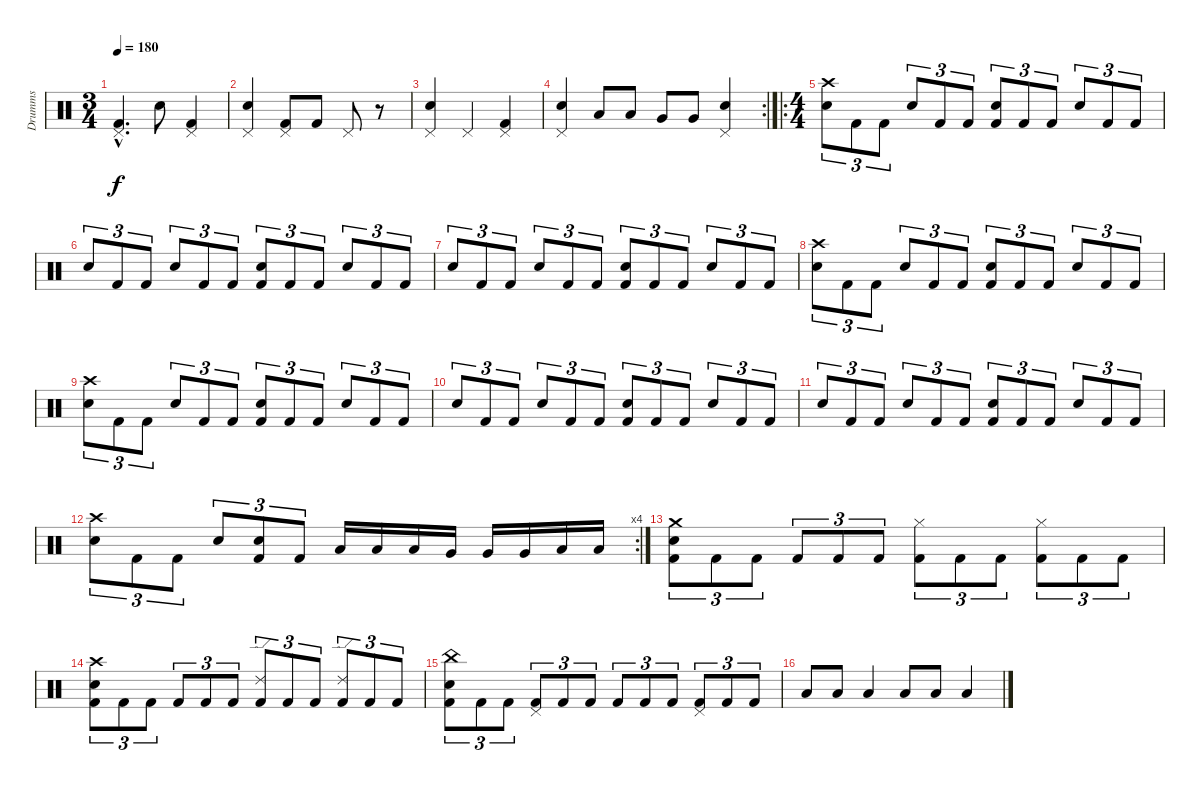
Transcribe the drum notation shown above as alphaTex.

\track ("Drumms" "Drumms") {instrument percussion}
\staff {score}
\articulation defaults
\ts (3 4)
\tempo 180
\clef neutral
\ks c
("Kick (hit) 2"{hac} "Pedal Hi-Hat (hit)"{hac}).4{d dy f} "Snare (hit) 2".8 ("Kick (hit) 2" "Pedal Hi-Hat (hit)").4 |
("Snare (hit) 2" "Pedal Hi-Hat (hit)").4 ("Kick (hit) 2" "Pedal Hi-Hat (hit)").8 "Kick (hit) 2".8 "Pedal Hi-Hat (hit)".8 r.8 |
("Snare (hit) 2" "Pedal Hi-Hat (hit)").4 "Pedal Hi-Hat (hit)".4 ("Kick (hit) 2" "Pedal Hi-Hat (hit)").4 |
\rc 2
("Snare (hit) 2" "Pedal Hi-Hat (hit)").4 "Low Tom (hit)".8 "Low Tom (hit)".8 "Very Low Tom (hit)".8 "Very Low Tom (hit)".8 ("Snare (hit) 2" "Pedal Hi-Hat (hit)").4 |
\ro
\ts (4 4)
("Snare (hit) 2" "Crash high (hit)").8{tu (3 2)} "Kick (hit) 2".8{tu (3 2)} "Kick (hit) 2".8{tu (3 2)} "Snare (hit) 2".8{tu (3 2)} "Kick (hit) 2".8{tu (3 2)} "Kick (hit) 2".8{tu (3 2)} ("Kick (hit) 2" "Snare (hit) 2").8{tu (3 2)} "Kick (hit) 2".8{tu (3 2)} "Kick (hit) 2".8{tu (3 2)} "Snare (hit) 2".8{tu (3 2)} "Kick (hit) 2".8{tu (3 2)} "Kick (hit) 2".8{tu (3 2)} |
"Snare (hit) 2".8{tu (3 2)} "Kick (hit) 2".8{tu (3 2)} "Kick (hit) 2".8{tu (3 2)} "Snare (hit) 2".8{tu (3 2)} "Kick (hit) 2".8{tu (3 2)} "Kick (hit) 2".8{tu (3 2)} ("Kick (hit) 2" "Snare (hit) 2").8{tu (3 2)} "Kick (hit) 2".8{tu (3 2)} "Kick (hit) 2".8{tu (3 2)} "Snare (hit) 2".8{tu (3 2)} "Kick (hit) 2".8{tu (3 2)} "Kick (hit) 2".8{tu (3 2)} |
"Snare (hit) 2".8{tu (3 2)} "Kick (hit) 2".8{tu (3 2)} "Kick (hit) 2".8{tu (3 2)} "Snare (hit) 2".8{tu (3 2)} "Kick (hit) 2".8{tu (3 2)} "Kick (hit) 2".8{tu (3 2)} ("Kick (hit) 2" "Snare (hit) 2").8{tu (3 2)} "Kick (hit) 2".8{tu (3 2)} "Kick (hit) 2".8{tu (3 2)} "Snare (hit) 2".8{tu (3 2)} "Kick (hit) 2".8{tu (3 2)} "Kick (hit) 2".8{tu (3 2)} |
("Snare (hit) 2" "Crash high (hit)").8{tu (3 2)} "Kick (hit) 2".8{tu (3 2)} "Kick (hit) 2".8{tu (3 2)} "Snare (hit) 2".8{tu (3 2)} "Kick (hit) 2".8{tu (3 2)} "Kick (hit) 2".8{tu (3 2)} ("Kick (hit) 2" "Snare (hit) 2").8{tu (3 2)} "Kick (hit) 2".8{tu (3 2)} "Kick (hit) 2".8{tu (3 2)} "Snare (hit) 2".8{tu (3 2)} "Kick (hit) 2".8{tu (3 2)} "Kick (hit) 2".8{tu (3 2)} |
("Snare (hit) 2" "Crash high (hit)").8{tu (3 2)} "Kick (hit) 2".8{tu (3 2)} "Kick (hit) 2".8{tu (3 2)} "Snare (hit) 2".8{tu (3 2)} "Kick (hit) 2".8{tu (3 2)} "Kick (hit) 2".8{tu (3 2)} ("Kick (hit) 2" "Snare (hit) 2").8{tu (3 2)} "Kick (hit) 2".8{tu (3 2)} "Kick (hit) 2".8{tu (3 2)} "Snare (hit) 2".8{tu (3 2)} "Kick (hit) 2".8{tu (3 2)} "Kick (hit) 2".8{tu (3 2)} |
"Snare (hit) 2".8{tu (3 2)} "Kick (hit) 2".8{tu (3 2)} "Kick (hit) 2".8{tu (3 2)} "Snare (hit) 2".8{tu (3 2)} "Kick (hit) 2".8{tu (3 2)} "Kick (hit) 2".8{tu (3 2)} ("Kick (hit) 2" "Snare (hit) 2").8{tu (3 2)} "Kick (hit) 2".8{tu (3 2)} "Kick (hit) 2".8{tu (3 2)} "Snare (hit) 2".8{tu (3 2)} "Kick (hit) 2".8{tu (3 2)} "Kick (hit) 2".8{tu (3 2)} |
"Snare (hit) 2".8{tu (3 2)} "Kick (hit) 2".8{tu (3 2)} "Kick (hit) 2".8{tu (3 2)} "Snare (hit) 2".8{tu (3 2)} "Kick (hit) 2".8{tu (3 2)} "Kick (hit) 2".8{tu (3 2)} ("Kick (hit) 2" "Snare (hit) 2").8{tu (3 2)} "Kick (hit) 2".8{tu (3 2)} "Kick (hit) 2".8{tu (3 2)} "Snare (hit) 2".8{tu (3 2)} "Kick (hit) 2".8{tu (3 2)} "Kick (hit) 2".8{tu (3 2)} |
\rc 4
("Snare (hit) 2" "Crash high (hit)").8{tu (3 2)} "Kick (hit) 2".8{tu (3 2)} "Kick (hit) 2".8{tu (3 2)} "Snare (hit) 2".8{tu (3 2)} ("Kick (hit) 2" "Snare (hit) 2").8{tu (3 2)} "Kick (hit) 2".8{tu (3 2)} "Low Tom (hit)".16 "Low Tom (hit)".16 "Low Tom (hit)".16 "Very Low Tom (hit)".16 "Very Low Tom (hit)".16 "Very Low Tom (hit)".16 "Low Floor Tom (hit)".16 "Low Floor Tom (hit)".16 |
("Kick (hit) 2" "Snare (hit) 2" "Crash medium (hit)").8{tu (3 2)} "Kick (hit) 2".8{tu (3 2)} "Kick (hit) 2".8{tu (3 2)} "Kick (hit) 2".8{tu (3 2)} "Kick (hit) 2".8{tu (3 2)} "Kick (hit) 2".8{tu (3 2)} ("Kick (hit) 2" "Hi-Hat (closed)").8{tu (3 2)} "Kick (hit) 2".8{tu (3 2)} "Kick (hit) 2".8{tu (3 2)} ("Kick (hit) 2" "Hi-Hat (closed)").8{tu (3 2)} "Kick (hit) 2".8{tu (3 2)} "Kick (hit) 2".8{tu (3 2)} |
("Kick (hit) 2" "Snare (hit) 2" "Crash high (hit)").8{tu (3 2)} "Kick (hit) 2".8{tu (3 2)} "Kick (hit) 2".8{tu (3 2)} "Kick (hit) 2".8{tu (3 2)} "Kick (hit) 2".8{tu (3 2)} "Kick (hit) 2".8{tu (3 2)} ("Kick (hit) 2" "Ride (edge) 2").8{tu (3 2)} "Kick (hit) 2".8{tu (3 2)} "Kick (hit) 2".8{tu (3 2)} ("Kick (hit) 2" "Ride (edge) 2").8{tu (3 2)} "Kick (hit) 2".8{tu (3 2)} "Kick (hit) 2".8{tu (3 2)} |
("Kick (hit) 2" "Snare (hit) 2" "China (hit)").8{tu (3 2)} "Kick (hit) 2".8{tu (3 2)} "Kick (hit) 2".8{tu (3 2)} ("Kick (hit) 2" "Pedal Hi-Hat (hit)").8{tu (3 2)} "Kick (hit) 2".8{tu (3 2)} "Kick (hit) 2".8{tu (3 2)} "Kick (hit) 2".8{tu (3 2)} "Kick (hit) 2".8{tu (3 2)} "Kick (hit) 2".8{tu (3 2)} ("Kick (hit) 2" "Pedal Hi-Hat (hit)").8{tu (3 2)} "Kick (hit) 2".8{tu (3 2)} "Kick (hit) 2".8{tu (3 2)} |
"Low Floor Tom (hit)".8 "Low Floor Tom (hit)".8 "Low Floor Tom (hit)".4 "Low Floor Tom (hit)".8 "Low Floor Tom (hit)".8 "Low Floor Tom (hit)".4
